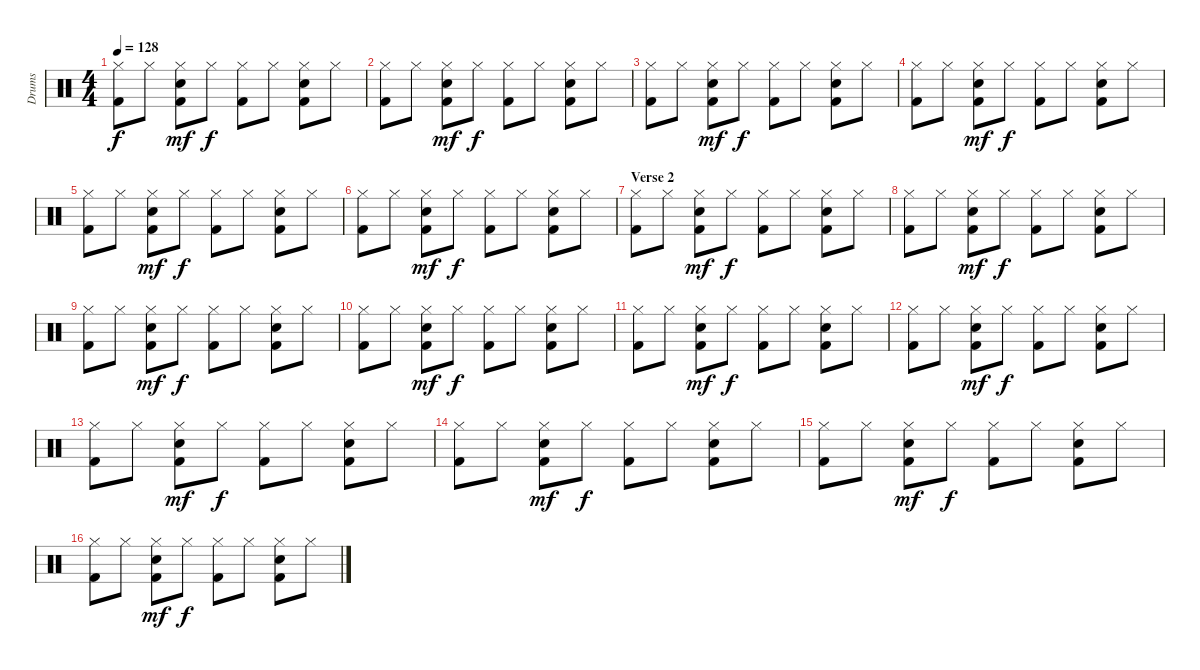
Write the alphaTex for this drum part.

\track ("Drums" "Drums") {instrument percussion}
\staff {score}
\articulation defaults
\ts (4 4)
\tempo 128
\clef neutral
\ks c
("Kick (hit) 2" "Hi-Hat (closed)").8{dy f} "Hi-Hat (closed)".8 ("Kick (hit) 2" "Snare (hit) 2" "Hi-Hat (closed)").8{dy mf} "Hi-Hat (closed)".8{dy f} ("Kick (hit) 2" "Hi-Hat (closed)").8 "Hi-Hat (closed)".8 ("Kick (hit) 2" "Snare (hit) 2" "Hi-Hat (closed)").8 "Hi-Hat (closed)".8 |
("Kick (hit) 2" "Hi-Hat (closed)").8 "Hi-Hat (closed)".8 ("Kick (hit) 2" "Snare (hit) 2" "Hi-Hat (closed)").8{dy mf} "Hi-Hat (closed)".8{dy f} ("Kick (hit) 2" "Hi-Hat (closed)").8 "Hi-Hat (closed)".8 ("Kick (hit) 2" "Snare (hit) 2" "Hi-Hat (closed)").8 "Hi-Hat (closed)".8 |
("Kick (hit) 2" "Hi-Hat (closed)").8 "Hi-Hat (closed)".8 ("Kick (hit) 2" "Snare (hit) 2" "Hi-Hat (closed)").8{dy mf} "Hi-Hat (closed)".8{dy f} ("Kick (hit) 2" "Hi-Hat (closed)").8 "Hi-Hat (closed)".8 ("Kick (hit) 2" "Snare (hit) 2" "Hi-Hat (closed)").8 "Hi-Hat (closed)".8 |
("Kick (hit) 2" "Hi-Hat (closed)").8 "Hi-Hat (closed)".8 ("Kick (hit) 2" "Snare (hit) 2" "Hi-Hat (closed)").8{dy mf} "Hi-Hat (closed)".8{dy f} ("Kick (hit) 2" "Hi-Hat (closed)").8 "Hi-Hat (closed)".8 ("Kick (hit) 2" "Snare (hit) 2" "Hi-Hat (closed)").8 "Hi-Hat (closed)".8 |
("Kick (hit) 2" "Hi-Hat (closed)").8 "Hi-Hat (closed)".8 ("Kick (hit) 2" "Snare (hit) 2" "Hi-Hat (closed)").8{dy mf} "Hi-Hat (closed)".8{dy f} ("Kick (hit) 2" "Hi-Hat (closed)").8 "Hi-Hat (closed)".8 ("Kick (hit) 2" "Snare (hit) 2" "Hi-Hat (closed)").8 "Hi-Hat (closed)".8 |
("Kick (hit) 2" "Hi-Hat (closed)").8 "Hi-Hat (closed)".8 ("Kick (hit) 2" "Snare (hit) 2" "Hi-Hat (closed)").8{dy mf} "Hi-Hat (closed)".8{dy f} ("Kick (hit) 2" "Hi-Hat (closed)").8 "Hi-Hat (closed)".8 ("Kick (hit) 2" "Snare (hit) 2" "Hi-Hat (closed)").8 "Hi-Hat (closed)".8 |
\section ("" "Verse 2")
("Kick (hit) 2" "Hi-Hat (closed)").8 "Hi-Hat (closed)".8 ("Kick (hit) 2" "Snare (hit) 2" "Hi-Hat (closed)").8{dy mf} "Hi-Hat (closed)".8{dy f} ("Kick (hit) 2" "Hi-Hat (closed)").8 "Hi-Hat (closed)".8 ("Kick (hit) 2" "Snare (hit) 2" "Hi-Hat (closed)").8 "Hi-Hat (closed)".8 |
("Kick (hit) 2" "Hi-Hat (closed)").8 "Hi-Hat (closed)".8 ("Kick (hit) 2" "Snare (hit) 2" "Hi-Hat (closed)").8{dy mf} "Hi-Hat (closed)".8{dy f} ("Kick (hit) 2" "Hi-Hat (closed)").8 "Hi-Hat (closed)".8 ("Kick (hit) 2" "Snare (hit) 2" "Hi-Hat (closed)").8 "Hi-Hat (closed)".8 |
("Kick (hit) 2" "Hi-Hat (closed)").8 "Hi-Hat (closed)".8 ("Kick (hit) 2" "Snare (hit) 2" "Hi-Hat (closed)").8{dy mf} "Hi-Hat (closed)".8{dy f} ("Kick (hit) 2" "Hi-Hat (closed)").8 "Hi-Hat (closed)".8 ("Kick (hit) 2" "Snare (hit) 2" "Hi-Hat (closed)").8 "Hi-Hat (closed)".8 |
("Kick (hit) 2" "Hi-Hat (closed)").8 "Hi-Hat (closed)".8 ("Kick (hit) 2" "Snare (hit) 2" "Hi-Hat (closed)").8{dy mf} "Hi-Hat (closed)".8{dy f} ("Kick (hit) 2" "Hi-Hat (closed)").8 "Hi-Hat (closed)".8 ("Kick (hit) 2" "Snare (hit) 2" "Hi-Hat (closed)").8 "Hi-Hat (closed)".8 |
("Kick (hit) 2" "Hi-Hat (closed)").8 "Hi-Hat (closed)".8 ("Kick (hit) 2" "Snare (hit) 2" "Hi-Hat (closed)").8{dy mf} "Hi-Hat (closed)".8{dy f} ("Kick (hit) 2" "Hi-Hat (closed)").8 "Hi-Hat (closed)".8 ("Kick (hit) 2" "Snare (hit) 2" "Hi-Hat (closed)").8 "Hi-Hat (closed)".8 |
("Kick (hit) 2" "Hi-Hat (closed)").8 "Hi-Hat (closed)".8 ("Kick (hit) 2" "Snare (hit) 2" "Hi-Hat (closed)").8{dy mf} "Hi-Hat (closed)".8{dy f} ("Kick (hit) 2" "Hi-Hat (closed)").8 "Hi-Hat (closed)".8 ("Kick (hit) 2" "Snare (hit) 2" "Hi-Hat (closed)").8 "Hi-Hat (closed)".8 |
("Kick (hit) 2" "Hi-Hat (closed)").8 "Hi-Hat (closed)".8 ("Kick (hit) 2" "Snare (hit) 2" "Hi-Hat (closed)").8{dy mf} "Hi-Hat (closed)".8{dy f} ("Kick (hit) 2" "Hi-Hat (closed)").8 "Hi-Hat (closed)".8 ("Kick (hit) 2" "Snare (hit) 2" "Hi-Hat (closed)").8 "Hi-Hat (closed)".8 |
("Kick (hit) 2" "Hi-Hat (closed)").8 "Hi-Hat (closed)".8 ("Kick (hit) 2" "Snare (hit) 2" "Hi-Hat (closed)").8{dy mf} "Hi-Hat (closed)".8{dy f} ("Kick (hit) 2" "Hi-Hat (closed)").8 "Hi-Hat (closed)".8 ("Kick (hit) 2" "Snare (hit) 2" "Hi-Hat (closed)").8 "Hi-Hat (closed)".8 |
("Kick (hit) 2" "Hi-Hat (closed)").8 "Hi-Hat (closed)".8 ("Kick (hit) 2" "Snare (hit) 2" "Hi-Hat (closed)").8{dy mf} "Hi-Hat (closed)".8{dy f} ("Kick (hit) 2" "Hi-Hat (closed)").8 "Hi-Hat (closed)".8 ("Kick (hit) 2" "Snare (hit) 2" "Hi-Hat (closed)").8 "Hi-Hat (closed)".8 |
("Kick (hit) 2" "Hi-Hat (closed)").8 "Hi-Hat (closed)".8 ("Kick (hit) 2" "Snare (hit) 2" "Hi-Hat (closed)").8{dy mf} "Hi-Hat (closed)".8{dy f} ("Kick (hit) 2" "Hi-Hat (closed)").8 "Hi-Hat (closed)".8 ("Kick (hit) 2" "Snare (hit) 2" "Hi-Hat (closed)").8 "Hi-Hat (closed)".8
